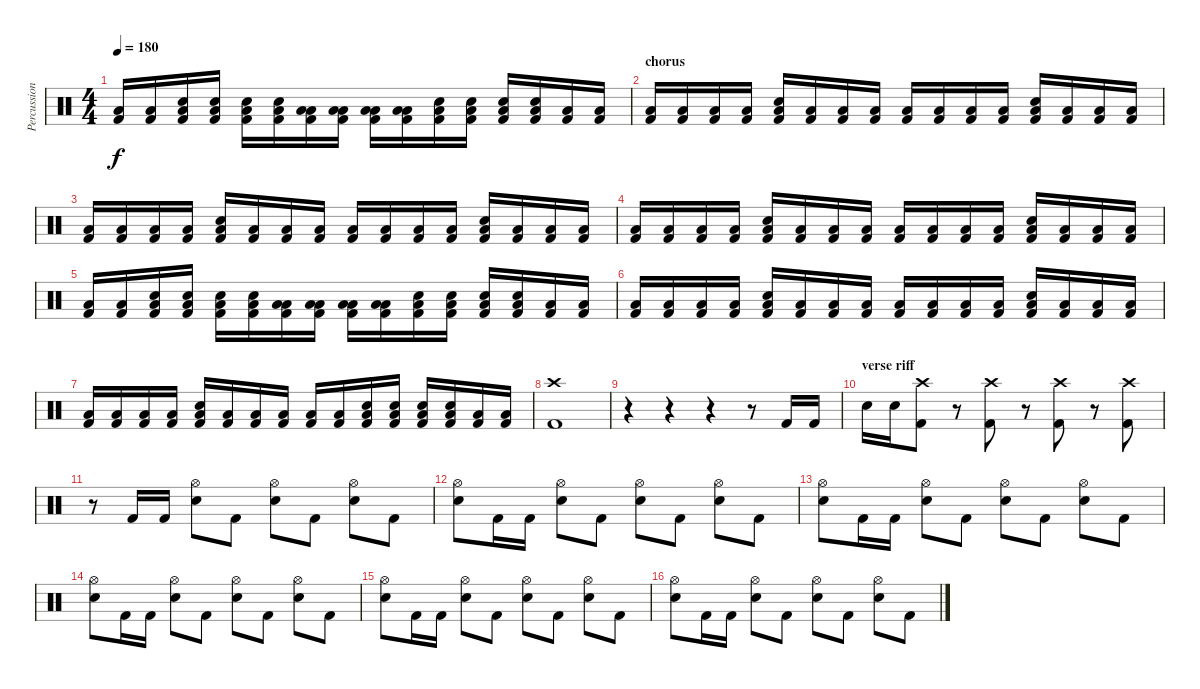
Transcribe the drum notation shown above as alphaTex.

\track ("Percussion" "Percussion") {instrument percussion}
\staff {score}
\articulation defaults
\ts (4 4)
\tempo 180
\clef neutral
\ks c
("Low Floor Tom (hit)" "Kick (hit) 2").16{dy f} ("Low Floor Tom (hit)" "Kick (hit) 2").16 ("Snare (hit) 2" "Low Floor Tom (hit)" "Kick (hit) 2").16 ("Snare (hit) 2" "Low Floor Tom (hit)" "Kick (hit) 2").16 ("Snare (hit) 2" "Low Floor Tom (hit)" "Kick (hit) 2").16 ("Snare (hit) 2" "Low Floor Tom (hit)" "Kick (hit) 2").16 ("Low Tom (hit)" "Low Floor Tom (hit)" "Kick (hit) 2").16 ("Low Tom (hit)" "Low Floor Tom (hit)" "Kick (hit) 2").16 ("Low Tom (hit)" "Low Floor Tom (hit)" "Kick (hit) 2").16 ("Low Tom (hit)" "Low Floor Tom (hit)" "Kick (hit) 2").16 ("Snare (hit) 2" "Low Floor Tom (hit)" "Kick (hit) 2").16 ("Snare (hit) 2" "Low Floor Tom (hit)" "Kick (hit) 2").16 ("Snare (hit) 2" "Low Floor Tom (hit)" "Kick (hit) 2").16 ("Snare (hit) 2" "Low Floor Tom (hit)" "Kick (hit) 2").16 ("Low Floor Tom (hit)" "Kick (hit) 2").16 ("Low Floor Tom (hit)" "Kick (hit) 2").16 |
\section ("" "chorus")
("Low Floor Tom (hit)" "Kick (hit) 2").16 ("Low Floor Tom (hit)" "Kick (hit) 2").16 ("Low Floor Tom (hit)" "Kick (hit) 2").16 ("Low Floor Tom (hit)" "Kick (hit) 2").16 ("Snare (hit) 2" "Low Floor Tom (hit)" "Kick (hit) 2").16 ("Low Floor Tom (hit)" "Kick (hit) 2").16 ("Low Floor Tom (hit)" "Kick (hit) 2").16 ("Low Floor Tom (hit)" "Kick (hit) 2").16 ("Low Floor Tom (hit)" "Kick (hit) 2").16 ("Low Floor Tom (hit)" "Kick (hit) 2").16 ("Low Floor Tom (hit)" "Kick (hit) 2").16 ("Low Floor Tom (hit)" "Kick (hit) 2").16 ("Snare (hit) 2" "Low Floor Tom (hit)" "Kick (hit) 2").16 ("Low Floor Tom (hit)" "Kick (hit) 2").16 ("Low Floor Tom (hit)" "Kick (hit) 2").16 ("Low Floor Tom (hit)" "Kick (hit) 2").16 |
("Low Floor Tom (hit)" "Kick (hit) 2").16 ("Low Floor Tom (hit)" "Kick (hit) 2").16 ("Low Floor Tom (hit)" "Kick (hit) 2").16 ("Low Floor Tom (hit)" "Kick (hit) 2").16 ("Snare (hit) 2" "Low Floor Tom (hit)" "Kick (hit) 2").16 ("Low Floor Tom (hit)" "Kick (hit) 2").16 ("Low Floor Tom (hit)" "Kick (hit) 2").16 ("Low Floor Tom (hit)" "Kick (hit) 2").16 ("Low Floor Tom (hit)" "Kick (hit) 2").16 ("Low Floor Tom (hit)" "Kick (hit) 2").16 ("Low Floor Tom (hit)" "Kick (hit) 2").16 ("Low Floor Tom (hit)" "Kick (hit) 2").16 ("Snare (hit) 2" "Low Floor Tom (hit)" "Kick (hit) 2").16 ("Low Floor Tom (hit)" "Kick (hit) 2").16 ("Low Floor Tom (hit)" "Kick (hit) 2").16 ("Low Floor Tom (hit)" "Kick (hit) 2").16 |
("Low Floor Tom (hit)" "Kick (hit) 2").16 ("Low Floor Tom (hit)" "Kick (hit) 2").16 ("Low Floor Tom (hit)" "Kick (hit) 2").16 ("Low Floor Tom (hit)" "Kick (hit) 2").16 ("Snare (hit) 2" "Low Floor Tom (hit)" "Kick (hit) 2").16 ("Low Floor Tom (hit)" "Kick (hit) 2").16 ("Low Floor Tom (hit)" "Kick (hit) 2").16 ("Low Floor Tom (hit)" "Kick (hit) 2").16 ("Low Floor Tom (hit)" "Kick (hit) 2").16 ("Low Floor Tom (hit)" "Kick (hit) 2").16 ("Low Floor Tom (hit)" "Kick (hit) 2").16 ("Low Floor Tom (hit)" "Kick (hit) 2").16 ("Snare (hit) 2" "Low Floor Tom (hit)" "Kick (hit) 2").16 ("Low Floor Tom (hit)" "Kick (hit) 2").16 ("Low Floor Tom (hit)" "Kick (hit) 2").16 ("Low Floor Tom (hit)" "Kick (hit) 2").16 |
("Low Floor Tom (hit)" "Kick (hit) 2").16 ("Low Floor Tom (hit)" "Kick (hit) 2").16 ("Snare (hit) 2" "Low Floor Tom (hit)" "Kick (hit) 2").16 ("Snare (hit) 2" "Low Floor Tom (hit)" "Kick (hit) 2").16 ("Snare (hit) 2" "Low Floor Tom (hit)" "Kick (hit) 2").16 ("Snare (hit) 2" "Low Floor Tom (hit)" "Kick (hit) 2").16 ("Low Tom (hit)" "Low Floor Tom (hit)" "Kick (hit) 2").16 ("Low Tom (hit)" "Low Floor Tom (hit)" "Kick (hit) 2").16 ("Low Tom (hit)" "Low Floor Tom (hit)" "Kick (hit) 2").16 ("Low Tom (hit)" "Low Floor Tom (hit)" "Kick (hit) 2").16 ("Snare (hit) 2" "Low Floor Tom (hit)" "Kick (hit) 2").16 ("Snare (hit) 2" "Low Floor Tom (hit)" "Kick (hit) 2").16 ("Snare (hit) 2" "Low Floor Tom (hit)" "Kick (hit) 2").16 ("Snare (hit) 2" "Low Floor Tom (hit)" "Kick (hit) 2").16 ("Low Floor Tom (hit)" "Kick (hit) 2").16 ("Low Floor Tom (hit)" "Kick (hit) 2").16 |
("Low Floor Tom (hit)" "Kick (hit) 2").16 ("Low Floor Tom (hit)" "Kick (hit) 2").16 ("Low Floor Tom (hit)" "Kick (hit) 2").16 ("Low Floor Tom (hit)" "Kick (hit) 2").16 ("Snare (hit) 2" "Low Floor Tom (hit)" "Kick (hit) 2").16 ("Low Floor Tom (hit)" "Kick (hit) 2").16 ("Low Floor Tom (hit)" "Kick (hit) 2").16 ("Low Floor Tom (hit)" "Kick (hit) 2").16 ("Low Floor Tom (hit)" "Kick (hit) 2").16 ("Low Floor Tom (hit)" "Kick (hit) 2").16 ("Low Floor Tom (hit)" "Kick (hit) 2").16 ("Low Floor Tom (hit)" "Kick (hit) 2").16 ("Snare (hit) 2" "Low Floor Tom (hit)" "Kick (hit) 2").16 ("Low Floor Tom (hit)" "Kick (hit) 2").16 ("Low Floor Tom (hit)" "Kick (hit) 2").16 ("Low Floor Tom (hit)" "Kick (hit) 2").16 |
("Low Floor Tom (hit)" "Kick (hit) 2").16 ("Low Floor Tom (hit)" "Kick (hit) 2").16 ("Low Floor Tom (hit)" "Kick (hit) 2").16 ("Low Floor Tom (hit)" "Kick (hit) 2").16 ("Snare (hit) 2" "Low Floor Tom (hit)" "Kick (hit) 2").16 ("Low Floor Tom (hit)" "Kick (hit) 2").16 ("Low Floor Tom (hit)" "Kick (hit) 2").16 ("Low Floor Tom (hit)" "Kick (hit) 2").16 ("Low Floor Tom (hit)" "Kick (hit) 2").16 ("Low Floor Tom (hit)" "Kick (hit) 2").16 ("Snare (hit) 2" "Low Floor Tom (hit)" "Kick (hit) 2").16 ("Snare (hit) 2" "Low Floor Tom (hit)" "Kick (hit) 2").16 ("Snare (hit) 2" "Low Floor Tom (hit)" "Kick (hit) 2").16 ("Snare (hit) 2" "Low Floor Tom (hit)" "Kick (hit) 2").16 ("Low Floor Tom (hit)" "Kick (hit) 2").16 ("Low Floor Tom (hit)" "Kick (hit) 2").16 |
("Crash high (hit)" "Kick (hit) 2").1 |
r.4 r.4 r.4 r.8 "Kick (hit) 2".16 "Kick (hit) 2".16 |
\section ("" "verse riff")
"Snare (hit) 2".16 "Snare (hit) 2".16 ("Crash high (hit)" "Kick (hit) 2").8 r.8 ("Crash high (hit)" "Kick (hit) 2").8 r.8 ("Crash high (hit)" "Kick (hit) 2").8 r.8 ("Crash high (hit)" "Kick (hit) 2").8 |
r.8 "Kick (hit) 2".16 "Kick (hit) 2".16 ("Hi-Hat (open)" "Snare (hit) 2").8 "Kick (hit) 2".8 ("Hi-Hat (open)" "Snare (hit) 2").8 "Kick (hit) 2".8 ("Hi-Hat (open)" "Snare (hit) 2").8 "Kick (hit) 2".8 |
("Hi-Hat (open)" "Snare (hit) 2").8 "Kick (hit) 2".16 "Kick (hit) 2".16 ("Hi-Hat (open)" "Snare (hit) 2").8 "Kick (hit) 2".8 ("Hi-Hat (open)" "Snare (hit) 2").8 "Kick (hit) 2".8 ("Hi-Hat (open)" "Snare (hit) 2").8 "Kick (hit) 2".8 |
("Hi-Hat (open)" "Snare (hit) 2").8 "Kick (hit) 2".16 "Kick (hit) 2".16 ("Hi-Hat (open)" "Snare (hit) 2").8 "Kick (hit) 2".8 ("Hi-Hat (open)" "Snare (hit) 2").8 "Kick (hit) 2".8 ("Hi-Hat (open)" "Snare (hit) 2").8 "Kick (hit) 2".8 |
("Hi-Hat (open)" "Snare (hit) 2").8 "Kick (hit) 2".16 "Kick (hit) 2".16 ("Hi-Hat (open)" "Snare (hit) 2").8 "Kick (hit) 2".8 ("Hi-Hat (open)" "Snare (hit) 2").8 "Kick (hit) 2".8 ("Hi-Hat (open)" "Snare (hit) 2").8 "Kick (hit) 2".8 |
("Hi-Hat (open)" "Snare (hit) 2").8 "Kick (hit) 2".16 "Kick (hit) 2".16 ("Hi-Hat (open)" "Snare (hit) 2").8 "Kick (hit) 2".8 ("Hi-Hat (open)" "Snare (hit) 2").8 "Kick (hit) 2".8 ("Hi-Hat (open)" "Snare (hit) 2").8 "Kick (hit) 2".8 |
("Hi-Hat (open)" "Snare (hit) 2").8 "Kick (hit) 2".16 "Kick (hit) 2".16 ("Hi-Hat (open)" "Snare (hit) 2").8 "Kick (hit) 2".8 ("Hi-Hat (open)" "Snare (hit) 2").8 "Kick (hit) 2".8 ("Hi-Hat (open)" "Snare (hit) 2").8 "Kick (hit) 2".8
